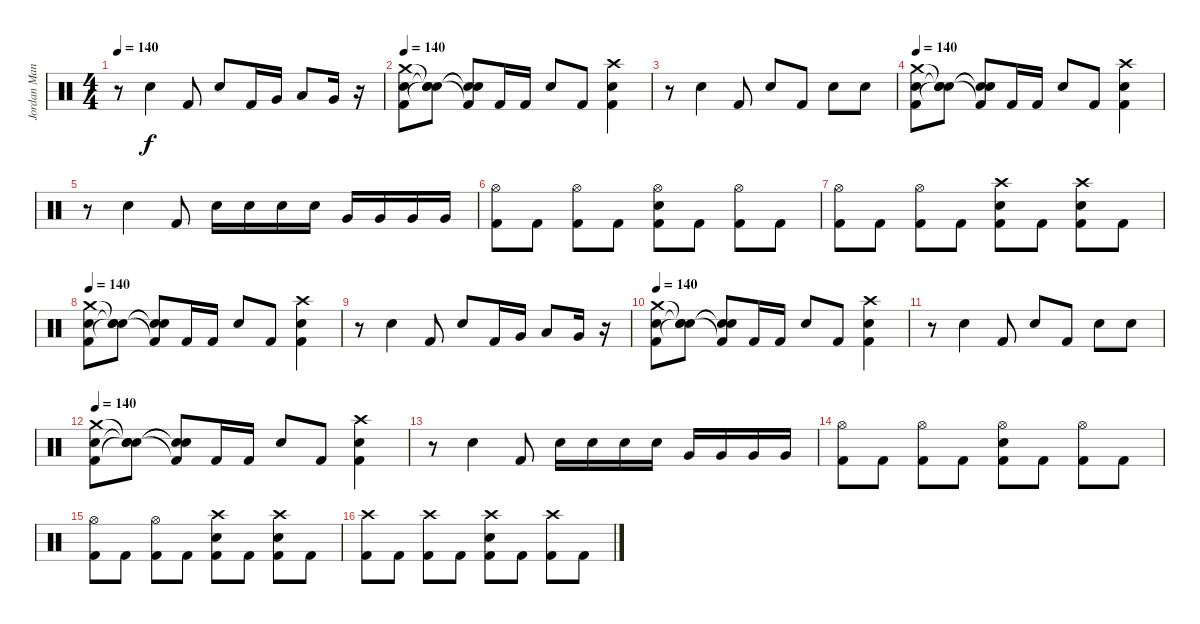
\track ("Jordan Mancino - Drums" "Jordan Man") {instrument percussion}
\staff {score}
\articulation defaults
\ts (4 4)
\tempo 140
\clef neutral
\ks c
r.8{dy f} "Snare (hit) 2".4 "Kick (hit) 2".8 "Snare (hit) 2".8 "Kick (hit) 2".16 "Very Low Tom (hit)".16 "Low Floor Tom (hit)".8 "Very Low Tom (hit)".16 r.16 |
\tempo 140
("Crash medium (hit)" "Snare (hit) 2" "Kick (hit) 2").8 ("Snare (hit)"{t} "Snare (hit)"{t} "Snare (hit)"{t}).8 ("Snare (hit)"{t} "Snare (hit)"{t} "Kick (hit) 2"{t}).8 "Kick (hit) 2".16 "Kick (hit) 2".16 "Snare (hit) 2".8 "Kick (hit) 2".8 ("Crash high (hit)" "Snare (hit) 2" "Kick (hit) 2").4 |
r.8 "Snare (hit) 2".4 "Kick (hit) 2".8 "Snare (hit) 2".8 "Kick (hit) 2".8 "Snare (hit) 2".8 "Snare (hit) 2".8 |
\tempo 140
("Crash medium (hit)" "Snare (hit) 2" "Kick (hit) 2").8 ("Snare (hit)"{t} "Snare (hit)"{t} "Snare (hit)"{t}).8 ("Snare (hit)"{t} "Snare (hit)"{t} "Kick (hit) 2"{t}).8 "Kick (hit) 2".16 "Kick (hit) 2".16 "Snare (hit) 2".8 "Kick (hit) 2".8 ("Crash high (hit)" "Snare (hit) 2" "Kick (hit) 2").4 |
r.8 "Snare (hit) 2".4 "Kick (hit) 2".8 "Snare (hit) 2".16 "Snare (hit) 2".16 "Snare (hit) 2".16 "Snare (hit) 2".16 "Very Low Tom (hit)".16 "Very Low Tom (hit)".16 "Very Low Tom (hit)".16 "Very Low Tom (hit)".16 |
("Hi-Hat (open)" "Kick (hit) 2").8 "Kick (hit) 2".8 ("Hi-Hat (open)" "Kick (hit) 2").8 "Kick (hit) 2".8 ("Snare (hit) 2" "Hi-Hat (open)" "Kick (hit) 2").8 "Kick (hit) 2".8 ("Hi-Hat (open)" "Kick (hit) 2").8 "Kick (hit) 2".8 |
("Hi-Hat (open)" "Kick (hit) 2").8 "Kick (hit) 2".8 ("Hi-Hat (open)" "Kick (hit) 2").8 "Kick (hit) 2".8 ("Snare (hit) 2" "Crash high (hit)" "Kick (hit) 2").8 "Kick (hit) 2".8 ("Snare (hit) 2" "Crash high (hit)" "Kick (hit) 2").8 "Kick (hit) 2".8 |
\tempo 140
("Crash medium (hit)" "Snare (hit) 2" "Kick (hit) 2").8 ("Snare (hit)"{t} "Snare (hit)"{t} "Snare (hit)"{t}).8 ("Snare (hit)"{t} "Snare (hit)"{t} "Kick (hit) 2"{t}).8 "Kick (hit) 2".16 "Kick (hit) 2".16 "Snare (hit) 2".8 "Kick (hit) 2".8 ("Crash high (hit)" "Snare (hit) 2" "Kick (hit) 2").4 |
r.8 "Snare (hit) 2".4 "Kick (hit) 2".8 "Snare (hit) 2".8 "Kick (hit) 2".16 "Very Low Tom (hit)".16 "Low Floor Tom (hit)".8 "Very Low Tom (hit)".16 r.16 |
\tempo 140
("Crash medium (hit)" "Snare (hit) 2" "Kick (hit) 2").8 ("Snare (hit)"{t} "Snare (hit)"{t} "Snare (hit)"{t}).8 ("Snare (hit)"{t} "Snare (hit)"{t} "Kick (hit) 2"{t}).8 "Kick (hit) 2".16 "Kick (hit) 2".16 "Snare (hit) 2".8 "Kick (hit) 2".8 ("Crash high (hit)" "Snare (hit) 2" "Kick (hit) 2").4 |
r.8 "Snare (hit) 2".4 "Kick (hit) 2".8 "Snare (hit) 2".8 "Kick (hit) 2".8 "Snare (hit) 2".8 "Snare (hit) 2".8 |
\tempo 140
("Crash medium (hit)" "Snare (hit) 2" "Kick (hit) 2").8 ("Snare (hit)"{t} "Snare (hit)"{t} "Snare (hit)"{t}).8 ("Snare (hit)"{t} "Snare (hit)"{t} "Kick (hit) 2"{t}).8 "Kick (hit) 2".16 "Kick (hit) 2".16 "Snare (hit) 2".8 "Kick (hit) 2".8 ("Crash high (hit)" "Snare (hit) 2" "Kick (hit) 2").4 |
r.8 "Snare (hit) 2".4 "Kick (hit) 2".8 "Snare (hit) 2".16 "Snare (hit) 2".16 "Snare (hit) 2".16 "Snare (hit) 2".16 "Very Low Tom (hit)".16 "Very Low Tom (hit)".16 "Very Low Tom (hit)".16 "Very Low Tom (hit)".16 |
("Hi-Hat (open)" "Kick (hit) 2").8 "Kick (hit) 2".8 ("Hi-Hat (open)" "Kick (hit) 2").8 "Kick (hit) 2".8 ("Snare (hit) 2" "Hi-Hat (open)" "Kick (hit) 2").8 "Kick (hit) 2".8 ("Hi-Hat (open)" "Kick (hit) 2").8 "Kick (hit) 2".8 |
("Hi-Hat (open)" "Kick (hit) 2").8 "Kick (hit) 2".8 ("Hi-Hat (open)" "Kick (hit) 2").8 "Kick (hit) 2".8 ("Snare (hit) 2" "Crash high (hit)" "Kick (hit) 2").8 "Kick (hit) 2".8 ("Snare (hit) 2" "Crash high (hit)" "Kick (hit) 2").8 "Kick (hit) 2".8 |
("Crash high (hit)" "Kick (hit) 2").8 "Kick (hit) 2".8 ("Crash high (hit)" "Kick (hit) 2").8 "Kick (hit) 2".8 ("Crash high (hit)" "Snare (hit) 2" "Kick (hit) 2").8 "Kick (hit) 2".8 ("Crash high (hit)" "Kick (hit) 2").8 "Kick (hit) 2".8
